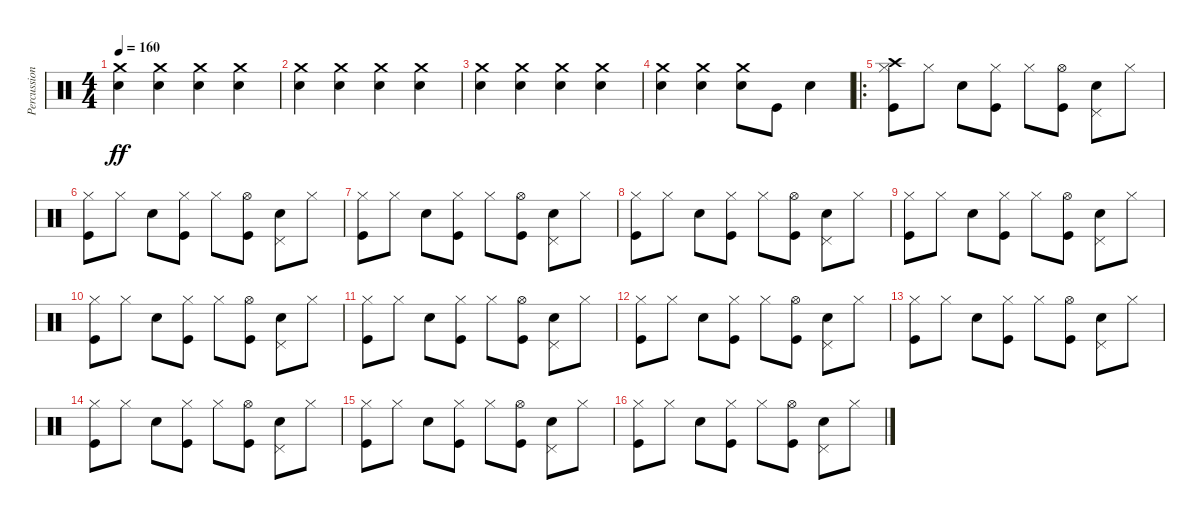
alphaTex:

\track ("Percussion" "Percussion") {instrument percussion}
\staff {score}
\articulation defaults
\ts (4 4)
\tempo 160
\clef neutral
\ks c
("Crash medium (hit)" "Electric Snare (hit)").4{dy ff} ("Crash medium (hit)" "Electric Snare (hit)").4 ("Crash medium (hit)" "Electric Snare (hit)").4 ("Crash medium (hit)" "Electric Snare (hit)").4 |
("Crash medium (hit)" "Electric Snare (hit)").4 ("Crash medium (hit)" "Electric Snare (hit)").4 ("Crash medium (hit)" "Electric Snare (hit)").4 ("Crash medium (hit)" "Electric Snare (hit)").4 |
("Crash medium (hit)" "Electric Snare (hit)").4 ("Crash medium (hit)" "Electric Snare (hit)").4 ("Crash medium (hit)" "Electric Snare (hit)").4 ("Crash medium (hit)" "Electric Snare (hit)").4 |
("Crash medium (hit)" "Electric Snare (hit)").4 ("Crash medium (hit)" "Electric Snare (hit)").4 ("Crash medium (hit)" "Electric Snare (hit)").8 "Kick (hit)".8 "Electric Snare (hit)".4 |
\ro
("Hi-Hat (closed)" "Crash high (hit)" "Kick (hit)").8 "Hi-Hat (closed)".8 "Electric Snare (hit)".8 ("Hi-Hat (closed)" "Kick (hit)").8 "Hi-Hat (closed)".8 ("Hi-Hat (open)" "Kick (hit)").8 ("Pedal Hi-Hat (hit)" "Electric Snare (hit)").8 "Hi-Hat (closed)".8 |
("Hi-Hat (closed)" "Kick (hit)").8 "Hi-Hat (closed)".8 "Electric Snare (hit)".8 ("Hi-Hat (closed)" "Kick (hit)").8 "Hi-Hat (closed)".8 ("Hi-Hat (open)" "Kick (hit)").8 ("Pedal Hi-Hat (hit)" "Electric Snare (hit)").8 "Hi-Hat (closed)".8 |
("Hi-Hat (closed)" "Kick (hit)").8 "Hi-Hat (closed)".8 "Electric Snare (hit)".8 ("Hi-Hat (closed)" "Kick (hit)").8 "Hi-Hat (closed)".8 ("Hi-Hat (open)" "Kick (hit)").8 ("Pedal Hi-Hat (hit)" "Electric Snare (hit)").8 "Hi-Hat (closed)".8 |
("Hi-Hat (closed)" "Kick (hit)").8 "Hi-Hat (closed)".8 "Electric Snare (hit)".8 ("Hi-Hat (closed)" "Kick (hit)").8 "Hi-Hat (closed)".8 ("Hi-Hat (open)" "Kick (hit)").8 ("Pedal Hi-Hat (hit)" "Electric Snare (hit)").8 "Hi-Hat (closed)".8 |
("Hi-Hat (closed)" "Kick (hit)").8 "Hi-Hat (closed)".8 "Electric Snare (hit)".8 ("Hi-Hat (closed)" "Kick (hit)").8 "Hi-Hat (closed)".8 ("Hi-Hat (open)" "Kick (hit)").8 ("Pedal Hi-Hat (hit)" "Electric Snare (hit)").8 "Hi-Hat (closed)".8 |
("Hi-Hat (closed)" "Kick (hit)").8 "Hi-Hat (closed)".8 "Electric Snare (hit)".8 ("Hi-Hat (closed)" "Kick (hit)").8 "Hi-Hat (closed)".8 ("Hi-Hat (open)" "Kick (hit)").8 ("Pedal Hi-Hat (hit)" "Electric Snare (hit)").8 "Hi-Hat (closed)".8 |
("Hi-Hat (closed)" "Kick (hit)").8 "Hi-Hat (closed)".8 "Electric Snare (hit)".8 ("Hi-Hat (closed)" "Kick (hit)").8 "Hi-Hat (closed)".8 ("Hi-Hat (open)" "Kick (hit)").8 ("Pedal Hi-Hat (hit)" "Electric Snare (hit)").8 "Hi-Hat (closed)".8 |
("Hi-Hat (closed)" "Kick (hit)").8 "Hi-Hat (closed)".8 "Electric Snare (hit)".8 ("Hi-Hat (closed)" "Kick (hit)").8 "Hi-Hat (closed)".8 ("Hi-Hat (open)" "Kick (hit)").8 ("Pedal Hi-Hat (hit)" "Electric Snare (hit)").8 "Hi-Hat (closed)".8 |
("Hi-Hat (closed)" "Kick (hit)").8 "Hi-Hat (closed)".8 "Electric Snare (hit)".8 ("Hi-Hat (closed)" "Kick (hit)").8 "Hi-Hat (closed)".8 ("Hi-Hat (open)" "Kick (hit)").8 ("Pedal Hi-Hat (hit)" "Electric Snare (hit)").8 "Hi-Hat (closed)".8 |
("Hi-Hat (closed)" "Kick (hit)").8 "Hi-Hat (closed)".8 "Electric Snare (hit)".8 ("Hi-Hat (closed)" "Kick (hit)").8 "Hi-Hat (closed)".8 ("Hi-Hat (open)" "Kick (hit)").8 ("Pedal Hi-Hat (hit)" "Electric Snare (hit)").8 "Hi-Hat (closed)".8 |
("Hi-Hat (closed)" "Kick (hit)").8 "Hi-Hat (closed)".8 "Electric Snare (hit)".8 ("Hi-Hat (closed)" "Kick (hit)").8 "Hi-Hat (closed)".8 ("Hi-Hat (open)" "Kick (hit)").8 ("Pedal Hi-Hat (hit)" "Electric Snare (hit)").8 "Hi-Hat (closed)".8 |
("Hi-Hat (closed)" "Kick (hit)").8 "Hi-Hat (closed)".8 "Electric Snare (hit)".8 ("Hi-Hat (closed)" "Kick (hit)").8 "Hi-Hat (closed)".8 ("Hi-Hat (open)" "Kick (hit)").8 ("Pedal Hi-Hat (hit)" "Electric Snare (hit)").8 "Hi-Hat (closed)".8
